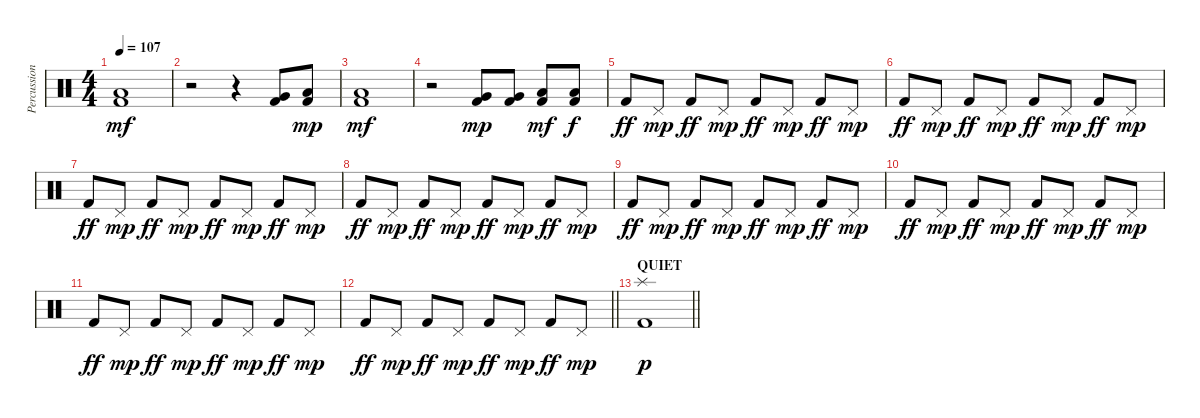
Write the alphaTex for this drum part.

\track ("Percussion" "Percussion") {instrument percussion}
\staff {score}
\articulation defaults
\ts (4 4)
\tempo 107
\clef neutral
\ks c
("Kick (hit) 2" "Low Floor Tom (hit)").1{dy mf} |
r.2 r.4 ("Kick (hit) 2" "Very Low Tom (hit)").8 ("Kick (hit) 2" "Low Floor Tom (hit)").8{dy mp} |
("Kick (hit) 2" "Low Floor Tom (hit)").1{dy mf} |
r.2 ("Kick (hit) 2" "Very Low Tom (hit)").8{dy mp} ("Kick (hit) 2" "Very Low Tom (hit)").8 ("Kick (hit) 2" "Low Floor Tom (hit)").8{dy mf} ("Kick (hit) 2" "Low Floor Tom (hit)").8{dy f} |
"Kick (hit) 2".8{dy ff} "Pedal Hi-Hat (hit)".8{dy mp} "Kick (hit) 2".8{dy ff} "Pedal Hi-Hat (hit)".8{dy mp} "Kick (hit) 2".8{dy ff} "Pedal Hi-Hat (hit)".8{dy mp} "Kick (hit) 2".8{dy ff} "Pedal Hi-Hat (hit)".8{dy mp} |
"Kick (hit) 2".8{dy ff} "Pedal Hi-Hat (hit)".8{dy mp} "Kick (hit) 2".8{dy ff} "Pedal Hi-Hat (hit)".8{dy mp} "Kick (hit) 2".8{dy ff} "Pedal Hi-Hat (hit)".8{dy mp} "Kick (hit) 2".8{dy ff} "Pedal Hi-Hat (hit)".8{dy mp} |
"Kick (hit) 2".8{dy ff} "Pedal Hi-Hat (hit)".8{dy mp} "Kick (hit) 2".8{dy ff} "Pedal Hi-Hat (hit)".8{dy mp} "Kick (hit) 2".8{dy ff} "Pedal Hi-Hat (hit)".8{dy mp} "Kick (hit) 2".8{dy ff} "Pedal Hi-Hat (hit)".8{dy mp} |
"Kick (hit) 2".8{dy ff} "Pedal Hi-Hat (hit)".8{dy mp} "Kick (hit) 2".8{dy ff} "Pedal Hi-Hat (hit)".8{dy mp} "Kick (hit) 2".8{dy ff} "Pedal Hi-Hat (hit)".8{dy mp} "Kick (hit) 2".8{dy ff} "Pedal Hi-Hat (hit)".8{dy mp} |
"Kick (hit) 2".8{dy ff} "Pedal Hi-Hat (hit)".8{dy mp} "Kick (hit) 2".8{dy ff} "Pedal Hi-Hat (hit)".8{dy mp} "Kick (hit) 2".8{dy ff} "Pedal Hi-Hat (hit)".8{dy mp} "Kick (hit) 2".8{dy ff} "Pedal Hi-Hat (hit)".8{dy mp} |
"Kick (hit) 2".8{dy ff} "Pedal Hi-Hat (hit)".8{dy mp} "Kick (hit) 2".8{dy ff} "Pedal Hi-Hat (hit)".8{dy mp} "Kick (hit) 2".8{dy ff} "Pedal Hi-Hat (hit)".8{dy mp} "Kick (hit) 2".8{dy ff} "Pedal Hi-Hat (hit)".8{dy mp} |
"Kick (hit) 2".8{dy ff} "Pedal Hi-Hat (hit)".8{dy mp} "Kick (hit) 2".8{dy ff} "Pedal Hi-Hat (hit)".8{dy mp} "Kick (hit) 2".8{dy ff} "Pedal Hi-Hat (hit)".8{dy mp} "Kick (hit) 2".8{dy ff} "Pedal Hi-Hat (hit)".8{dy mp} |
\barLineRight lightlight "Kick (hit) 2".8{dy ff} "Pedal Hi-Hat (hit)".8{dy mp} "Kick (hit) 2".8{dy ff} "Pedal Hi-Hat (hit)".8{dy mp} "Kick (hit) 2".8{dy ff} "Pedal Hi-Hat (hit)".8{dy mp} "Kick (hit) 2".8{dy ff} "Pedal Hi-Hat (hit)".8{dy mp}
|
\section ("" "QUIET")
\barLineRight lightlight
("Kick (hit) 2" "Splash (hit)").1{dy p}
